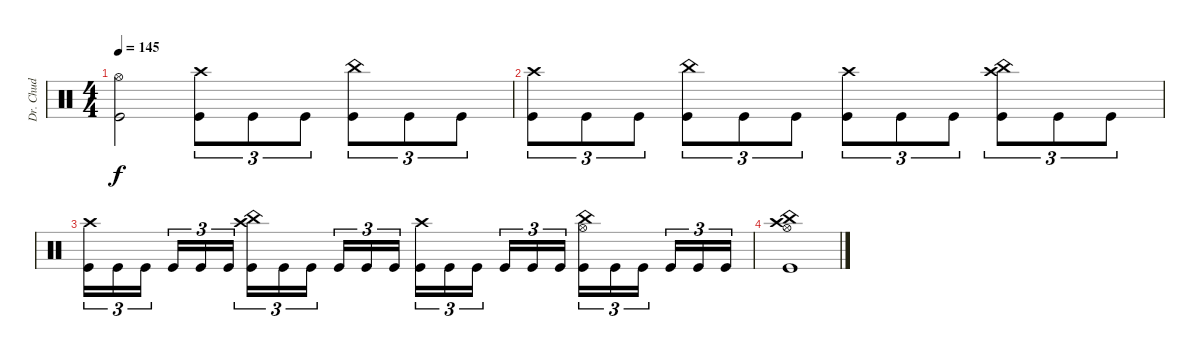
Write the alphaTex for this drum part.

\track ("Dr. Chud" "Dr. Chud") {instrument percussion}
\staff {score}
\articulation defaults
\ts (4 4)
\tempo 145
\clef neutral
\ks c
("Hi-Hat (open)" "Kick (hit)").2{dy f} ("Crash high (hit)" "Kick (hit)").8{tu (3 2)} "Kick (hit)".8{tu (3 2)} "Kick (hit)".8{tu (3 2)} ("China (hit)" "Kick (hit)").8{tu (3 2)} "Kick (hit)".8{tu (3 2)} "Kick (hit)".8{tu (3 2)} |
("Crash high (hit)" "Kick (hit)").8{tu (3 2)} "Kick (hit)".8{tu (3 2)} "Kick (hit)".8{tu (3 2)} ("China (hit)" "Kick (hit)").8{tu (3 2)} "Kick (hit)".8{tu (3 2)} "Kick (hit)".8{tu (3 2)} ("Crash high (hit)" "Kick (hit)").8{tu (3 2)} "Kick (hit)".8{tu (3 2)} "Kick (hit)".8{tu (3 2)} ("Crash high (hit)" "China (hit)" "Kick (hit)").8{tu (3 2)} "Kick (hit)".8{tu (3 2)} "Kick (hit)".8{tu (3 2)} |
("Crash high (hit)" "Kick (hit)").16{tu (3 2)} "Kick (hit)".16{tu (3 2)} "Kick (hit)".16{tu (3 2)} "Kick (hit)".16{tu (3 2)} "Kick (hit)".16{tu (3 2)} "Kick (hit)".16{tu (3 2)} ("Crash high (hit)" "China (hit)" "Kick (hit)").16{tu (3 2)} "Kick (hit)".16{tu (3 2)} "Kick (hit)".16{tu (3 2)} "Kick (hit)".16{tu (3 2)} "Kick (hit)".16{tu (3 2)} "Kick (hit)".16{tu (3 2)} ("Crash high (hit)" "Kick (hit)").16{tu (3 2)} "Kick (hit)".16{tu (3 2)} "Kick (hit)".16{tu (3 2)} "Kick (hit)".16{tu (3 2)} "Kick (hit)".16{tu (3 2)} "Kick (hit)".16{tu (3 2)} ("Hi-Hat (open)" "China (hit)" "Kick (hit)").16{tu (3 2)} "Kick (hit)".16{tu (3 2)} "Kick (hit)".16{tu (3 2)} "Kick (hit)".16{tu (3 2)} "Kick (hit)".16{tu (3 2)} "Kick (hit)".16{tu (3 2)} |
("China (hit)" "Crash high (hit)" "Hi-Hat (open)" "Kick (hit)").1
